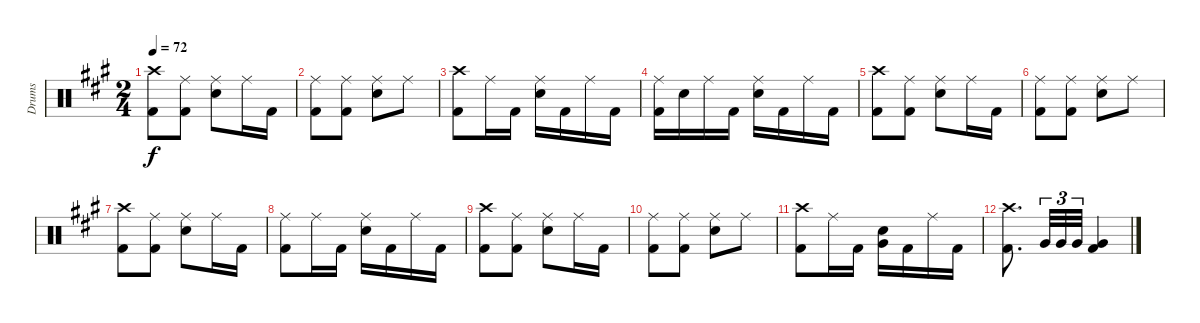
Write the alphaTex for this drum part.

\track ("Drums" "Drums") {instrument percussion}
\staff {score}
\articulation defaults
\ts (2 4)
\tempo 72
\clef neutral
\ks a
("Crash high (hit)" "Kick (hit) 2").8{dy f} ("Ride (middle)" "Kick (hit) 2").8 ("Ride (middle)" "Snare (hit) 2").8 "Ride (middle)".16 "Kick (hit) 2".16 |
("Ride (middle)" "Kick (hit) 2").8 ("Ride (middle)" "Kick (hit) 2").8 ("Ride (middle)" "Snare (hit) 2").8 "Ride (middle)".8 |
("Crash high (hit)" "Kick (hit) 2").8 "Ride (middle)".16 "Kick (hit) 2".16 ("Ride (middle)" "Snare (hit) 2").16 "Kick (hit) 2".16 "Ride (middle)".16 "Kick (hit) 2".16 |
("Ride (middle)" "Kick (hit) 2").16 "Snare (hit) 2".16 "Ride (middle)".16 "Kick (hit) 2".16 ("Ride (middle)" "Snare (hit) 2").16 "Kick (hit) 2".16 "Ride (middle)".16 "Kick (hit) 2".16 |
("Crash high (hit)" "Kick (hit) 2").8 ("Ride (middle)" "Kick (hit) 2").8 ("Ride (middle)" "Snare (hit) 2").8 "Ride (middle)".16 "Kick (hit) 2".16 |
("Ride (middle)" "Kick (hit) 2").8 ("Ride (middle)" "Kick (hit) 2").8 ("Ride (middle)" "Snare (hit) 2").8 "Ride (middle)".8 |
("Crash high (hit)" "Kick (hit) 2").8 ("Ride (middle)" "Kick (hit) 2").8 ("Ride (middle)" "Snare (hit) 2").8 "Ride (middle)".16 "Kick (hit) 2".16 |
("Ride (middle)" "Kick (hit) 2").8 "Ride (middle)".16 "Kick (hit) 2".16 ("Ride (middle)" "Snare (hit) 2").16 "Kick (hit) 2".16 "Ride (middle)".16 "Kick (hit) 2".16 |
("Crash high (hit)" "Kick (hit) 2").8 ("Ride (middle)" "Kick (hit) 2").8 ("Ride (middle)" "Snare (hit) 2").8 "Ride (middle)".16 "Kick (hit) 2".16 |
("Ride (middle)" "Kick (hit) 2").8 ("Ride (middle)" "Kick (hit) 2").8 ("Ride (middle)" "Snare (hit) 2").8 "Ride (middle)".8 |
("Crash high (hit)" "Kick (hit) 2").8 "Ride (middle)".16 "Kick (hit) 2".16 ("Snare (hit) 2" "Very Low Tom (hit)").16 "Kick (hit) 2".16 "Ride (middle)".16 "Kick (hit) 2".16 |
("Crash high (hit)" "Kick (hit) 2").8{d} "Very Low Tom (hit)".32{tu (3 2)} "Very Low Tom (hit)".32{tu (3 2)} "Very Low Tom (hit)".32{tu (3 2)} ("Very Low Tom (hit)" "Kick (hit) 2").4
